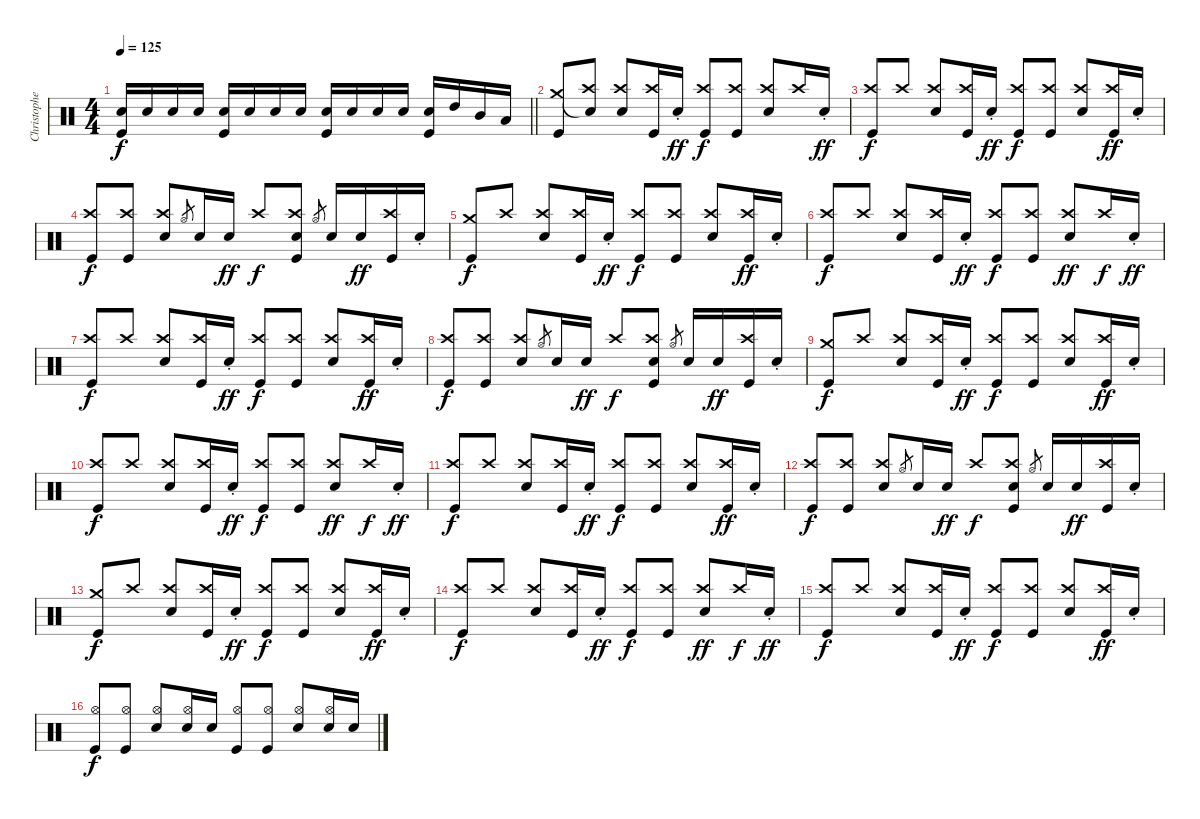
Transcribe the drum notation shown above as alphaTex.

\track ("Christopher Guanlao - Drums" "Christophe") {instrument percussion}
\staff {score}
\articulation defaults
\ts (4 4)
\tempo 125
\clef neutral
\barLineRight lightlight
\ks c
("Electric Snare (hit)" "Kick (hit)").16{dy f beam Up} "Electric Snare (hit)".16{beam Up} "Electric Snare (hit)".16{beam Up} "Electric Snare (hit)".16{beam Up} ("Electric Snare (hit)" "Kick (hit)").16{beam Up} "Electric Snare (hit)".16{beam Up} "Electric Snare (hit)".16{beam Up} "Electric Snare (hit)".16{beam Up} ("Electric Snare (hit)" "Kick (hit)").16{beam Up} "Electric Snare (hit)".16{beam Up} "Electric Snare (hit)".16{beam Up} "Electric Snare (hit)".16{beam Up} ("Electric Snare (hit)" "Kick (hit)").16{beam Up} "High Tom (hit)".16{beam Up} "Mid Tom (hit)".16{beam Up} "Low Floor Tom (hit)".16{beam Up} |
("Crash medium (hit)" "Kick (hit)").8{beam Up} ("Snare (hit)"{t} "Crash high (hit)").8{beam Up} ("Crash high (hit)" "Electric Snare (hit)").8{beam Up} ("Crash high (hit)" "Kick (hit)").16{beam Up} "Electric Snare (hit)"{st}.16{dy ff beam Up} ("Crash high (hit)" "Kick (hit)").8{dy f beam Up} ("Crash high (hit)" "Kick (hit)").8{beam Up} ("Crash high (hit)" "Electric Snare (hit)").8{beam Up} "Crash high (hit)".16{beam Up} "Electric Snare (hit)"{st}.16{dy ff beam Up} |
("Crash high (hit)" "Kick (hit)").8{dy f beam Up} "Crash high (hit)".8{beam Up} ("Crash high (hit)" "Electric Snare (hit)").8{beam Up} ("Crash high (hit)" "Kick (hit)").16{beam Up} "Electric Snare (hit)"{st}.16{dy ff beam Up} ("Crash high (hit)" "Kick (hit)").8{dy f beam Up} ("Crash high (hit)" "Kick (hit)").8{beam Up} ("Crash high (hit)" "Electric Snare (hit)").8{beam Up} ("Crash high (hit)" "Kick (hit)").16{dy ff beam Up} "Electric Snare (hit)"{st}.16{beam Up} |
("Crash high (hit)" "Kick (hit)").8{dy f beam Up} ("Crash high (hit)" "Kick (hit)").8{beam Up} ("Crash high (hit)" "Electric Snare (hit)").8{beam Up} "Hi-Hat (open)".8{gr} "Electric Snare (hit)".16{beam Up} "Electric Snare (hit)".16{dy ff beam Up} "Crash high (hit)".8{dy f beam Up} ("Crash high (hit)" "Electric Snare (hit)" "Kick (hit)").8{beam Up} "Hi-Hat (open)".8{gr} "Electric Snare (hit)".16{beam Up} "Electric Snare (hit)".16{dy ff beam Up} ("Crash high (hit)" "Kick (hit)").16{beam Up} "Electric Snare (hit)"{st}.16{beam Up} |
("Crash medium (hit)" "Kick (hit)").8{dy f beam Up} "Crash high (hit)".8{beam Up} ("Crash high (hit)" "Electric Snare (hit)").8{beam Up} ("Crash high (hit)" "Kick (hit)").16{beam Up} "Electric Snare (hit)"{st}.16{dy ff beam Up} ("Crash high (hit)" "Kick (hit)").8{dy f beam Up} ("Crash high (hit)" "Kick (hit)").8{beam Up} ("Crash high (hit)" "Electric Snare (hit)").8{beam Up} ("Crash high (hit)" "Kick (hit)").16{dy ff beam Up} "Electric Snare (hit)"{st}.16{beam Up} |
("Crash high (hit)" "Kick (hit)").8{dy f beam Up} "Crash high (hit)".8{beam Up} ("Crash high (hit)" "Electric Snare (hit)").8{beam Up} ("Crash high (hit)" "Kick (hit)").16{beam Up} "Electric Snare (hit)"{st}.16{dy ff beam Up} ("Crash high (hit)" "Kick (hit)").8{dy f beam Up} ("Crash high (hit)" "Kick (hit)").8{beam Up} ("Crash high (hit)" "Electric Snare (hit)").8{dy ff beam Up} "Crash high (hit)".16{dy f beam Up} "Electric Snare (hit)"{st}.16{dy ff beam Up} |
("Crash high (hit)" "Kick (hit)").8{dy f beam Up} "Crash high (hit)".8{beam Up} ("Crash high (hit)" "Electric Snare (hit)").8{beam Up} ("Crash high (hit)" "Kick (hit)").16{beam Up} "Electric Snare (hit)"{st}.16{dy ff beam Up} ("Crash high (hit)" "Kick (hit)").8{dy f beam Up} ("Crash high (hit)" "Kick (hit)").8{beam Up} ("Crash high (hit)" "Electric Snare (hit)").8{beam Up} ("Crash high (hit)" "Kick (hit)").16{dy ff beam Up} "Electric Snare (hit)"{st}.16{beam Up} |
("Crash high (hit)" "Kick (hit)").8{dy f beam Up} ("Crash high (hit)" "Kick (hit)").8{beam Up} ("Crash high (hit)" "Electric Snare (hit)").8{beam Up} "Hi-Hat (open)".8{gr} "Electric Snare (hit)".16{beam Up} "Electric Snare (hit)".16{dy ff beam Up} "Crash high (hit)".8{dy f beam Up} ("Crash high (hit)" "Electric Snare (hit)" "Kick (hit)").8{beam Up} "Hi-Hat (open)".8{gr} "Electric Snare (hit)".16{beam Up} "Electric Snare (hit)".16{dy ff beam Up} ("Crash high (hit)" "Kick (hit)").16{beam Up} "Electric Snare (hit)"{st}.16{beam Up} |
("Crash medium (hit)" "Kick (hit)").8{dy f beam Up} "Crash high (hit)".8{beam Up} ("Crash high (hit)" "Electric Snare (hit)").8{beam Up} ("Crash high (hit)" "Kick (hit)").16{beam Up} "Electric Snare (hit)"{st}.16{dy ff beam Up} ("Crash high (hit)" "Kick (hit)").8{dy f beam Up} ("Crash high (hit)" "Kick (hit)").8{beam Up} ("Crash high (hit)" "Electric Snare (hit)").8{beam Up} ("Crash high (hit)" "Kick (hit)").16{dy ff beam Up} "Electric Snare (hit)"{st}.16{beam Up} |
("Crash high (hit)" "Kick (hit)").8{dy f beam Up} "Crash high (hit)".8{beam Up} ("Crash high (hit)" "Electric Snare (hit)").8{beam Up} ("Crash high (hit)" "Kick (hit)").16{beam Up} "Electric Snare (hit)"{st}.16{dy ff beam Up} ("Crash high (hit)" "Kick (hit)").8{dy f beam Up} ("Crash high (hit)" "Kick (hit)").8{beam Up} ("Crash high (hit)" "Electric Snare (hit)").8{dy ff beam Up} "Crash high (hit)".16{dy f beam Up} "Electric Snare (hit)"{st}.16{dy ff beam Up} |
("Crash high (hit)" "Kick (hit)").8{dy f beam Up} "Crash high (hit)".8{beam Up} ("Crash high (hit)" "Electric Snare (hit)").8{beam Up} ("Crash high (hit)" "Kick (hit)").16{beam Up} "Electric Snare (hit)"{st}.16{dy ff beam Up} ("Crash high (hit)" "Kick (hit)").8{dy f beam Up} ("Crash high (hit)" "Kick (hit)").8{beam Up} ("Crash high (hit)" "Electric Snare (hit)").8{beam Up} ("Crash high (hit)" "Kick (hit)").16{dy ff beam Up} "Electric Snare (hit)"{st}.16{beam Up} |
("Crash high (hit)" "Kick (hit)").8{dy f beam Up} ("Crash high (hit)" "Kick (hit)").8{beam Up} ("Crash high (hit)" "Electric Snare (hit)").8{beam Up} "Hi-Hat (open)".8{gr} "Electric Snare (hit)".16{beam Up} "Electric Snare (hit)".16{dy ff beam Up} "Crash high (hit)".8{dy f beam Up} ("Crash high (hit)" "Electric Snare (hit)" "Kick (hit)").8{beam Up} "Hi-Hat (open)".8{gr} "Electric Snare (hit)".16{beam Up} "Electric Snare (hit)".16{dy ff beam Up} ("Crash high (hit)" "Kick (hit)").16{beam Up} "Electric Snare (hit)"{st}.16{beam Up} |
("Crash medium (hit)" "Kick (hit)").8{dy f beam Up} "Crash high (hit)".8{beam Up} ("Crash high (hit)" "Electric Snare (hit)").8{beam Up} ("Crash high (hit)" "Kick (hit)").16{beam Up} "Electric Snare (hit)"{st}.16{dy ff beam Up} ("Crash high (hit)" "Kick (hit)").8{dy f beam Up} ("Crash high (hit)" "Kick (hit)").8{beam Up} ("Crash high (hit)" "Electric Snare (hit)").8{beam Up} ("Crash high (hit)" "Kick (hit)").16{dy ff beam Up} "Electric Snare (hit)"{st}.16{beam Up} |
("Crash high (hit)" "Kick (hit)").8{dy f beam Up} "Crash high (hit)".8{beam Up} ("Crash high (hit)" "Electric Snare (hit)").8{beam Up} ("Crash high (hit)" "Kick (hit)").16{beam Up} "Electric Snare (hit)"{st}.16{dy ff beam Up} ("Crash high (hit)" "Kick (hit)").8{dy f beam Up} ("Crash high (hit)" "Kick (hit)").8{beam Up} ("Crash high (hit)" "Electric Snare (hit)").8{dy ff beam Up} "Crash high (hit)".16{dy f beam Up} "Electric Snare (hit)"{st}.16{dy ff beam Up} |
("Crash high (hit)" "Kick (hit)").8{dy f beam Up} "Crash high (hit)".8{beam Up} ("Crash high (hit)" "Electric Snare (hit)").8{beam Up} ("Crash high (hit)" "Kick (hit)").16{beam Up} "Electric Snare (hit)"{st}.16{dy ff beam Up} ("Crash high (hit)" "Kick (hit)").8{dy f beam Up} ("Crash high (hit)" "Kick (hit)").8{beam Up} ("Crash high (hit)" "Electric Snare (hit)").8{beam Up} ("Crash high (hit)" "Kick (hit)").16{dy ff beam Up} "Electric Snare (hit)"{st}.16{beam Up} |
("Hi-Hat (open)" "Kick (hit)").8{dy f beam Up} ("Hi-Hat (open)" "Kick (hit)").8{beam Up} ("Hi-Hat (open)" "Electric Snare (hit)").8{beam Up} ("Hi-Hat (open)" "Electric Snare (hit)").16{beam Up} "Electric Snare (hit)".16{beam Up} ("Hi-Hat (open)" "Kick (hit)").8{beam Up} ("Hi-Hat (open)" "Kick (hit)").8{beam Up} ("Hi-Hat (open)" "Electric Snare (hit)").8{beam Up} ("Hi-Hat (open)" "Electric Snare (hit)").16{beam Up} "Electric Snare (hit)".16{beam Up}
